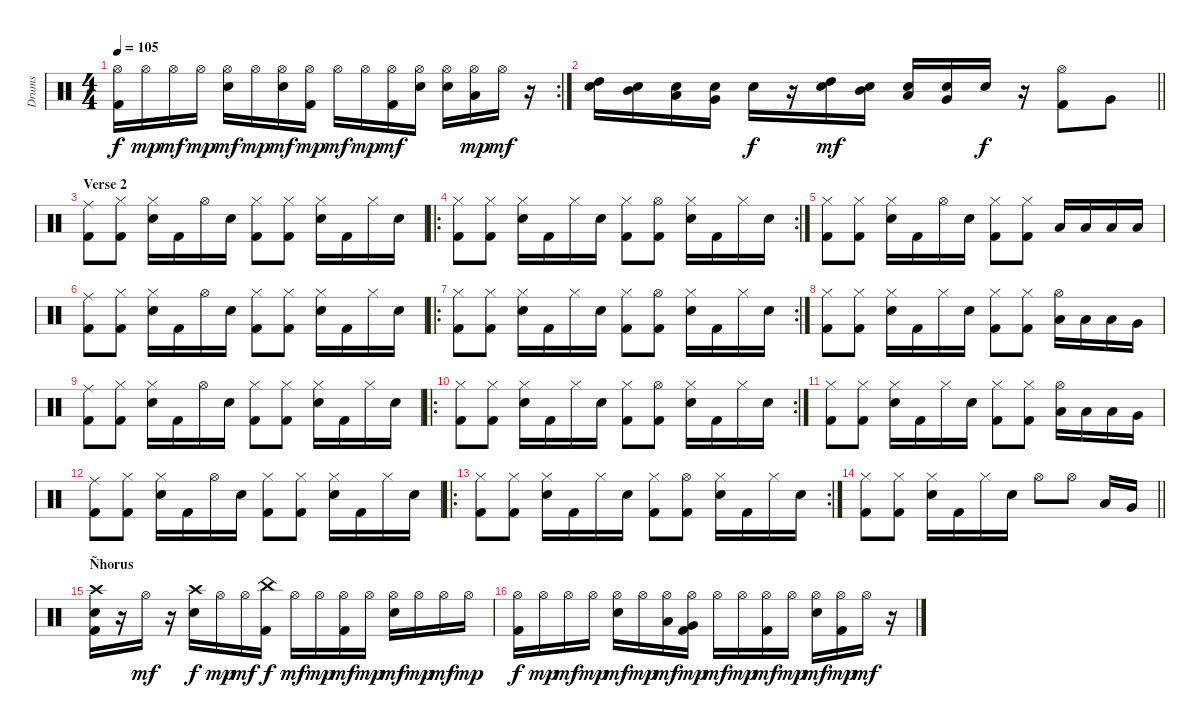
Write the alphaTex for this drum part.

\track ("Drums" "Drums") {instrument percussion}
\staff {score}
\articulation defaults
\rc 2
\ts (4 4)
\tempo 105
\clef neutral
\ks c
("Hi-Hat (open)" "Kick (hit) 2").16{dy f} "Hi-Hat (open)".16{dy mp} "Hi-Hat (open)".16{dy mf} "Hi-Hat (open)".16{dy mp} ("Hi-Hat (open)" "Electric Snare (hit)").16{dy mf} "Hi-Hat (open)".16{dy mp} ("Hi-Hat (open)" "Electric Snare (hit)").16{dy mf} ("Hi-Hat (open)" "Kick (hit) 2").16{dy mp} "Hi-Hat (open)".16{dy mf} "Hi-Hat (open)".16{dy mp} ("Hi-Hat (open)" "Kick (hit) 2").16{dy mf} ("Hi-Hat (open)" "Electric Snare (hit)").16 ("Hi-Hat (open)" "Electric Snare (hit)").16 ("Hi-Hat (open)" "Low Tom (hit)").16{dy mp} "Hi-Hat (open)".16{dy mf} r.16 |
\barLineRight lightlight
("Electric Snare (hit)" "High Tom (hit)").16 ("Electric Snare (hit)" "Mid Tom (hit)").16 ("Electric Snare (hit)" "Low Tom (hit)").16 ("Electric Snare (hit)" "Very Low Tom (hit)").16 "Electric Snare (hit)".16{dy f} r.16 ("Electric Snare (hit)" "High Tom (hit)").16{dy mf} ("Electric Snare (hit)" "Mid Tom (hit)").16 ("Electric Snare (hit)" "Low Tom (hit)").16 ("Electric Snare (hit)" "Very Low Tom (hit)").16 "Electric Snare (hit)".16{dy f} r.16 ("Kick (hit) 2" "Hi-Hat (open)").8 "Very Low Tom (hit)".8 |
\section ("" "Verse 2")
("Ride (middle)" "Kick (hit) 2").8 ("Hi-Hat (closed)" "Kick (hit) 2").8 ("Hi-Hat (closed)" "Electric Snare (hit)").16 "Kick (hit) 2".16 "Hi-Hat (open)".16 "Electric Snare (hit)".16 ("Kick (hit) 2" "Hi-Hat (closed)").8 ("Hi-Hat (closed)" "Kick (hit) 2").8 ("Electric Snare (hit)" "Hi-Hat (closed)").16 "Kick (hit) 2".16 "Hi-Hat (closed)".16 "Electric Snare (hit)".16 |
\ro
\rc 2
("Hi-Hat (closed)" "Kick (hit) 2").8 ("Hi-Hat (closed)" "Kick (hit) 2").8 ("Hi-Hat (closed)" "Electric Snare (hit)").16 "Kick (hit) 2".16 "Hi-Hat (closed)".16 "Electric Snare (hit)".16 ("Kick (hit) 2" "Hi-Hat (closed)").8 ("Kick (hit) 2" "Hi-Hat (open)").8 ("Electric Snare (hit)" "Hi-Hat (closed)").16 "Kick (hit) 2".16 "Hi-Hat (closed)".16 "Electric Snare (hit)".16 |
("Hi-Hat (closed)" "Kick (hit) 2").8 ("Hi-Hat (closed)" "Kick (hit) 2").8 ("Hi-Hat (closed)" "Electric Snare (hit)").16 "Kick (hit) 2".16 "Hi-Hat (open)".16 "Electric Snare (hit)".16 ("Kick (hit) 2" "Hi-Hat (closed)").8 ("Hi-Hat (closed)" "Kick (hit) 2").8 "Low Tom (hit)".16 "Low Tom (hit)".16 "Low Tom (hit)".16 "Low Tom (hit)".16 |
("Ride (middle)" "Kick (hit) 2").8 ("Hi-Hat (closed)" "Kick (hit) 2").8 ("Hi-Hat (closed)" "Electric Snare (hit)").16 "Kick (hit) 2".16 "Hi-Hat (open)".16 "Electric Snare (hit)".16 ("Kick (hit) 2" "Hi-Hat (closed)").8 ("Hi-Hat (closed)" "Kick (hit) 2").8 ("Electric Snare (hit)" "Hi-Hat (closed)").16 "Kick (hit) 2".16 "Hi-Hat (closed)".16 "Electric Snare (hit)".16 |
\ro
\rc 2
("Hi-Hat (closed)" "Kick (hit) 2").8 ("Hi-Hat (closed)" "Kick (hit) 2").8 ("Hi-Hat (closed)" "Electric Snare (hit)").16 "Kick (hit) 2".16 "Hi-Hat (closed)".16 "Electric Snare (hit)".16 ("Kick (hit) 2" "Hi-Hat (closed)").8 ("Kick (hit) 2" "Hi-Hat (open)").8 ("Electric Snare (hit)" "Hi-Hat (closed)").16 "Kick (hit) 2".16 "Hi-Hat (closed)".16 "Electric Snare (hit)".16 |
("Hi-Hat (closed)" "Kick (hit) 2").8 ("Hi-Hat (closed)" "Kick (hit) 2").8 ("Hi-Hat (closed)" "Electric Snare (hit)").16 "Kick (hit) 2".16 "Hi-Hat (closed)".16 "Electric Snare (hit)".16 ("Kick (hit) 2" "Hi-Hat (closed)").8 ("Hi-Hat (closed)" "Kick (hit) 2").8 ("Low Tom (hit)" "Hi-Hat (open)").16 "Low Tom (hit)".16 "Low Tom (hit)".16 "Very Low Tom (hit)".16 |
("Ride (middle)" "Kick (hit) 2").8 ("Hi-Hat (closed)" "Kick (hit) 2").8 ("Hi-Hat (closed)" "Electric Snare (hit)").16 "Kick (hit) 2".16 "Hi-Hat (open)".16 "Electric Snare (hit)".16 ("Kick (hit) 2" "Hi-Hat (closed)").8 ("Hi-Hat (closed)" "Kick (hit) 2").8 ("Electric Snare (hit)" "Hi-Hat (closed)").16 "Kick (hit) 2".16 "Hi-Hat (closed)".16 "Electric Snare (hit)".16 |
\ro
\rc 2
("Hi-Hat (closed)" "Kick (hit) 2").8 ("Hi-Hat (closed)" "Kick (hit) 2").8 ("Hi-Hat (closed)" "Electric Snare (hit)").16 "Kick (hit) 2".16 "Hi-Hat (closed)".16 "Electric Snare (hit)".16 ("Kick (hit) 2" "Hi-Hat (closed)").8 ("Kick (hit) 2" "Hi-Hat (open)").8 ("Electric Snare (hit)" "Hi-Hat (closed)").16 "Kick (hit) 2".16 "Hi-Hat (closed)".16 "Electric Snare (hit)".16 |
("Hi-Hat (closed)" "Kick (hit) 2").8 ("Hi-Hat (closed)" "Kick (hit) 2").8 ("Hi-Hat (closed)" "Electric Snare (hit)").16 "Kick (hit) 2".16 "Hi-Hat (closed)".16 "Electric Snare (hit)".16 ("Kick (hit) 2" "Hi-Hat (closed)").8 ("Hi-Hat (closed)" "Kick (hit) 2").8 ("Low Tom (hit)" "Hi-Hat (open)").16 "Low Tom (hit)".16 "Low Tom (hit)".16 "Very Low Tom (hit)".16 |
("Ride (middle)" "Kick (hit) 2").8 ("Hi-Hat (closed)" "Kick (hit) 2").8 ("Hi-Hat (closed)" "Electric Snare (hit)").16 "Kick (hit) 2".16 "Hi-Hat (open)".16 "Electric Snare (hit)".16 ("Kick (hit) 2" "Hi-Hat (closed)").8 ("Hi-Hat (closed)" "Kick (hit) 2").8 ("Electric Snare (hit)" "Hi-Hat (closed)").16 "Kick (hit) 2".16 "Hi-Hat (closed)".16 "Electric Snare (hit)".16 |
\ro
\rc 2
("Hi-Hat (closed)" "Kick (hit) 2").8 ("Hi-Hat (closed)" "Kick (hit) 2").8 ("Hi-Hat (closed)" "Electric Snare (hit)").16 "Kick (hit) 2".16 "Hi-Hat (closed)".16 "Electric Snare (hit)".16 ("Kick (hit) 2" "Hi-Hat (closed)").8 ("Kick (hit) 2" "Hi-Hat (open)").8 ("Electric Snare (hit)" "Hi-Hat (closed)").16 "Kick (hit) 2".16 "Hi-Hat (closed)".16 "Electric Snare (hit)".16 |
\barLineRight lightlight
("Hi-Hat (closed)" "Kick (hit) 2").8 ("Hi-Hat (closed)" "Kick (hit) 2").8 ("Hi-Hat (closed)" "Electric Snare (hit)").16 "Kick (hit) 2".16 "Hi-Hat (closed)".16 "Electric Snare (hit)".16 "Hi-Hat (open)".8 "Hi-Hat (open)".8 "Low Tom (hit)".16 "Very Low Tom (hit)".16 |
\section ("" "Ñhorus")
("Crash high (hit)" "Kick (hit) 2" "Electric Snare (hit)").16 r.16 "Hi-Hat (open)".16{dy mf} r.16 ("Electric Snare (hit)" "Crash high (hit)").16{dy f} "Hi-Hat (open)".16{dy mp} "Hi-Hat (open)".16{dy mf} ("Kick (hit) 2" "China (hit)").16{dy f} "Hi-Hat (open)".16{dy mf} "Hi-Hat (open)".16{dy mp} ("Hi-Hat (open)" "Kick (hit) 2").16{dy mf} "Hi-Hat (open)".16{dy mp} ("Hi-Hat (open)" "Electric Snare (hit)").16{dy mf} "Hi-Hat (open)".16{dy mp} "Hi-Hat (open)".16{dy mf} "Hi-Hat (open)".16{dy mp} |
("Hi-Hat (open)" "Kick (hit) 2").16{dy f} "Hi-Hat (open)".16{dy mp} "Hi-Hat (open)".16{dy mf} "Hi-Hat (open)".16{dy mp} ("Hi-Hat (open)" "Electric Snare (hit)").16{dy mf} "Hi-Hat (open)".16{dy mp} ("Hi-Hat (open)" "Low Tom (hit)").16{dy mf} ("Hi-Hat (open)" "Kick (hit) 2" "Very Low Tom (hit)").16{dy mp} "Hi-Hat (open)".16{dy mf} "Hi-Hat (open)".16{dy mp} ("Hi-Hat (open)" "Kick (hit) 2").16{dy mf} "Hi-Hat (open)".16{dy mp} ("Hi-Hat (open)" "Electric Snare (hit)").16{dy mf} ("Hi-Hat (open)" "Kick (hit) 2").16{dy mp} "Hi-Hat (open)".16{dy mf} r.16
